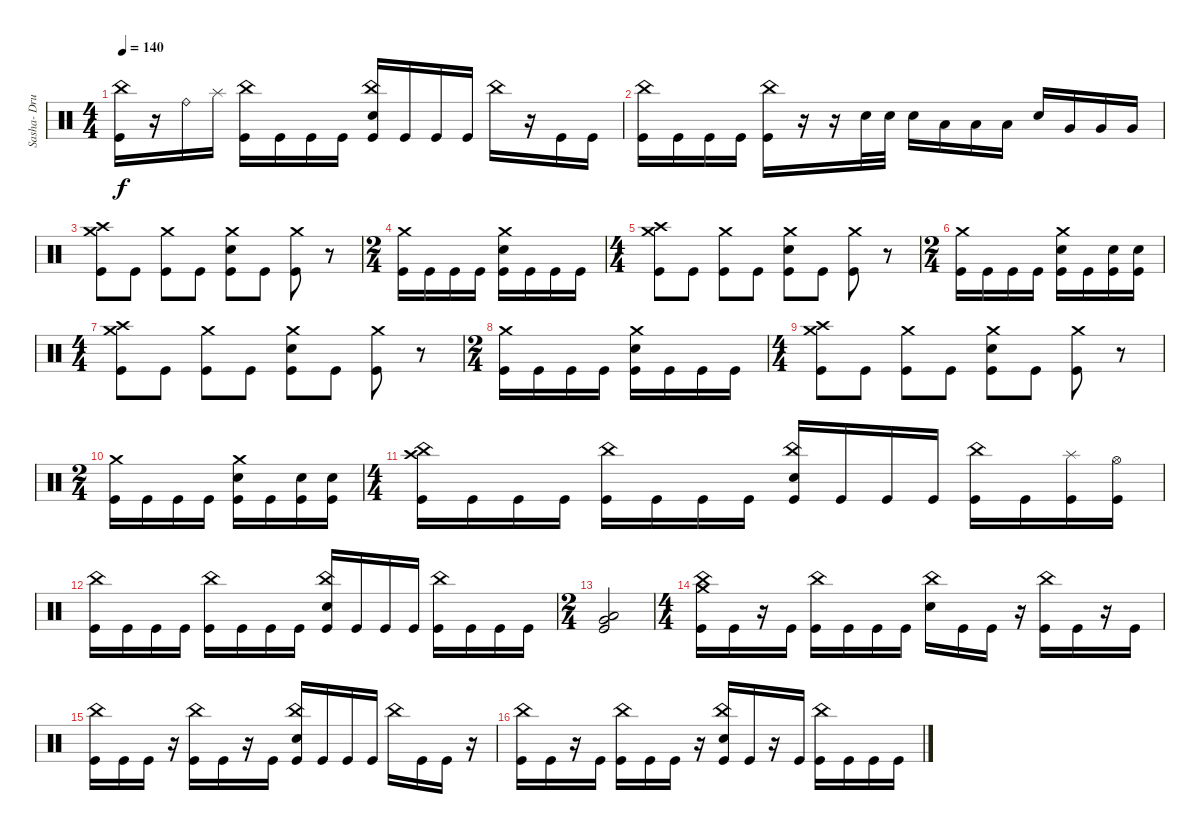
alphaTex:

\track ("Sasha- Drums" "Sasha- Dru") {instrument percussion}
\staff {score}
\articulation defaults
\ts (4 4)
\tempo 140
\clef neutral
\ks c
("Kick (hit)" "China (hit)").16{dy f} r.16 "Ride (bell)".16 "Splash (hit)".16 ("Kick (hit)" "China (hit)").16 "Kick (hit)".16 "Kick (hit)".16 "Kick (hit)".16 ("Kick (hit)" "China (hit)" "Snare (hit) 2").16 "Kick (hit)".16 "Kick (hit)".16 "Kick (hit)".16 "China (hit)".16 r.16 "Kick (hit)".16 "Kick (hit)".16 |
("Kick (hit)" "China (hit)").16 "Kick (hit)".16 "Kick (hit)".16 "Kick (hit)".16 ("Kick (hit)" "China (hit)").16 r.16 r.16 "Snare (hit) 2".32 "Snare (hit) 2".32 "Snare (hit) 2".16 "Low Tom (hit)".16 "Low Tom (hit)".16 "Low Tom (hit)".16 "Snare (hit) 2".16 "Very Low Tom (hit)".16 "Very Low Tom (hit)".16 "Very Low Tom (hit)".16 |
("Kick (hit)" "Crash high (hit)" "Crash medium (hit)").8 "Kick (hit)".8 ("Kick (hit)" "Crash medium (hit)").8 "Kick (hit)".8 ("Kick (hit)" "Crash medium (hit)" "Snare (hit) 2").8 "Kick (hit)".8 ("Kick (hit)" "Crash medium (hit)").8 r.8 |
\ts (2 4)
("Kick (hit)" "Crash medium (hit)").16 "Kick (hit)".16 "Kick (hit)".16 "Kick (hit)".16 ("Kick (hit)" "Crash medium (hit)" "Snare (hit) 2").16 "Kick (hit)".16 "Kick (hit)".16 "Kick (hit)".16 |
\ts (4 4)
("Kick (hit)" "Crash high (hit)" "Crash medium (hit)").8 "Kick (hit)".8 ("Kick (hit)" "Crash medium (hit)").8 "Kick (hit)".8 ("Kick (hit)" "Crash medium (hit)" "Snare (hit) 2").8 "Kick (hit)".8 ("Kick (hit)" "Crash medium (hit)").8 r.8 |
\ts (2 4)
("Kick (hit)" "Crash medium (hit)").16 "Kick (hit)".16 "Kick (hit)".16 "Kick (hit)".16 ("Kick (hit)" "Crash medium (hit)" "Snare (hit) 2").16 "Kick (hit)".16 ("Kick (hit)" "Snare (hit) 2").16 ("Kick (hit)" "Snare (hit) 2").16 |
\ts (4 4)
("Kick (hit)" "Crash high (hit)" "Crash medium (hit)").8 "Kick (hit)".8 ("Kick (hit)" "Crash medium (hit)").8 "Kick (hit)".8 ("Kick (hit)" "Crash medium (hit)" "Snare (hit) 2").8 "Kick (hit)".8 ("Kick (hit)" "Crash medium (hit)").8 r.8 |
\ts (2 4)
("Kick (hit)" "Crash medium (hit)").16 "Kick (hit)".16 "Kick (hit)".16 "Kick (hit)".16 ("Kick (hit)" "Crash medium (hit)" "Snare (hit) 2").16 "Kick (hit)".16 "Kick (hit)".16 "Kick (hit)".16 |
\ts (4 4)
("Kick (hit)" "Crash high (hit)" "Crash medium (hit)").8 "Kick (hit)".8 ("Kick (hit)" "Crash medium (hit)").8 "Kick (hit)".8 ("Kick (hit)" "Crash medium (hit)" "Snare (hit) 2").8 "Kick (hit)".8 ("Kick (hit)" "Crash medium (hit)").8 r.8 |
\ts (2 4)
("Kick (hit)" "Crash medium (hit)").16 "Kick (hit)".16 "Kick (hit)".16 "Kick (hit)".16 ("Kick (hit)" "Crash medium (hit)" "Snare (hit) 2").16 "Kick (hit)".16 ("Kick (hit)" "Snare (hit) 2").16 ("Kick (hit)" "Snare (hit) 2").16 |
\ts (4 4)
("Kick (hit)" "Crash high (hit)" "China (hit)").16 "Kick (hit)".16 "Kick (hit)".16 "Kick (hit)".16 ("Kick (hit)" "China (hit)").16 "Kick (hit)".16 "Kick (hit)".16 "Kick (hit)".16 ("Kick (hit)" "Snare (hit) 2" "China (hit)").16 "Kick (hit)".16 "Kick (hit)".16 "Kick (hit)".16 ("Kick (hit)" "China (hit)").16 "Kick (hit)".16 ("Kick (hit)" "Splash (hit)").16 ("Kick (hit)" "Hi-Hat (open)").16 |
("Kick (hit)" "China (hit)").16 "Kick (hit)".16 "Kick (hit)".16 "Kick (hit)".16 ("Kick (hit)" "China (hit)").16 "Kick (hit)".16 "Kick (hit)".16 "Kick (hit)".16 ("Kick (hit)" "Snare (hit) 2" "China (hit)").16 "Kick (hit)".16 "Kick (hit)".16 "Kick (hit)".16 ("Kick (hit)" "China (hit)").16 "Kick (hit)".16 "Kick (hit)".16 "Kick (hit)".16 |
\ts (2 4)
("Kick (hit)" "Low Tom (hit)" "Very Low Tom (hit)").2 |
\ts (4 4)
("Kick (hit)" "Crash medium (hit)" "China (hit)").16 "Kick (hit)".16 r.16 "Kick (hit)".16 ("Kick (hit)" "China (hit)").16 "Kick (hit)".16 "Kick (hit)".16 "Kick (hit)".16 ("China (hit)" "Snare (hit) 2").16 "Kick (hit)".16 "Kick (hit)".16 r.16 ("Kick (hit)" "China (hit)").16 "Kick (hit)".16 r.16 "Kick (hit)".16 |
("Kick (hit)" "China (hit)").16 "Kick (hit)".16 "Kick (hit)".16 r.16 ("Kick (hit)" "China (hit)").16 "Kick (hit)".16 r.16 "Kick (hit)".16 ("Kick (hit)" "China (hit)" "Snare (hit) 2").16 "Kick (hit)".16 "Kick (hit)".16 "Kick (hit)".16 "China (hit)".16 "Kick (hit)".16 "Kick (hit)".16 r.16 |
("Kick (hit)" "China (hit)").16 "Kick (hit)".16 r.16 "Kick (hit)".16 ("Kick (hit)" "China (hit)").16 "Kick (hit)".16 "Kick (hit)".16 r.16 ("Kick (hit)" "China (hit)" "Snare (hit) 2").16 "Kick (hit)".16 r.16 "Kick (hit)".16 ("Kick (hit)" "China (hit)").16 "Kick (hit)".16 "Kick (hit)".16 "Kick (hit)".16
